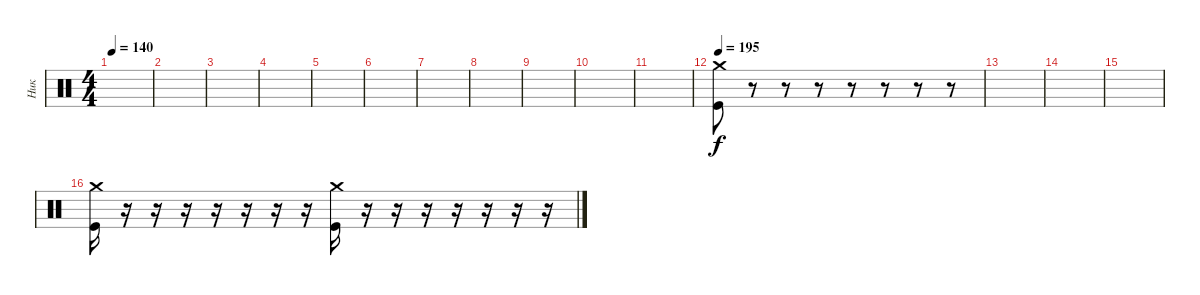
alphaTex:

\track ("Ник" "Ник") {instrument percussion}
\staff {score}
\articulation defaults
\ts (4 4)
\tempo 140
\clef neutral
\ks c
|
|
|
|
|
|
|
|
|
|
|
\tempo 195
("Crash medium (hit)" "Kick (hit)").8 r.8 r.8 r.8 r.8 r.8 r.8 r.8 |
|
|
|
("Crash medium (hit)" "Kick (hit)").16 r.16 r.16 r.16 r.16 r.16 r.16 r.16 ("Crash medium (hit)" "Kick (hit)").16 r.16 r.16 r.16 r.16 r.16 r.16 r.16
